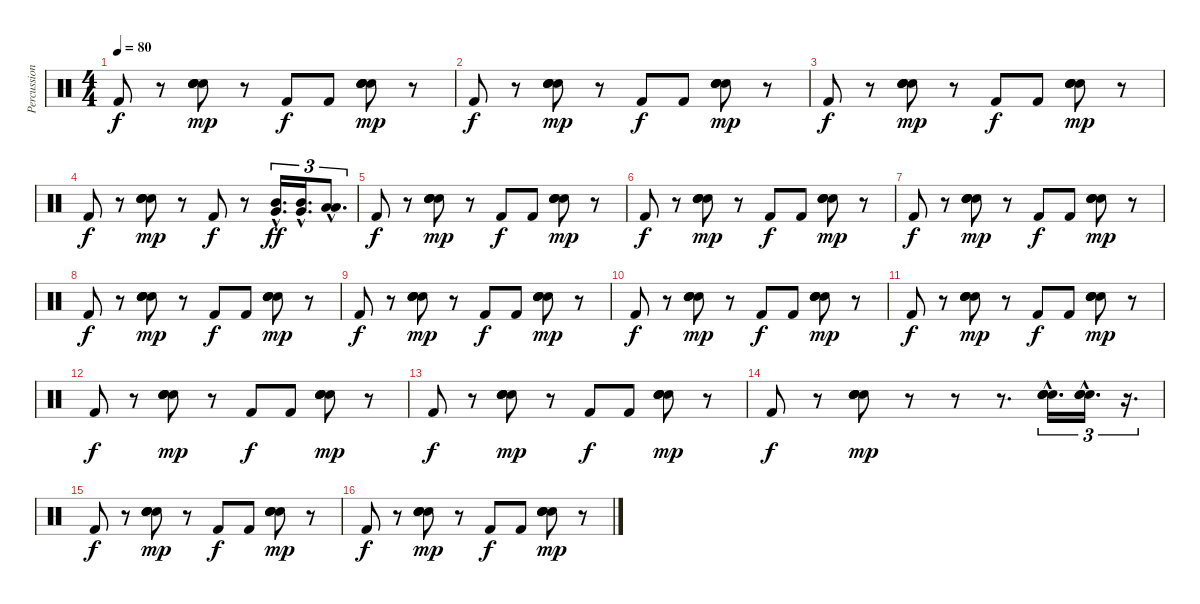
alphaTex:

\track ("Percussion" "Percussion") {instrument percussion}
\staff {score}
\articulation defaults
\ts (4 4)
\tempo 80
\clef neutral
\ks c "Kick (hit) 2".8{dy f}
r.8 ("Snare (hit) 2" "Snare (hit) 2" "Snare (hit) 2" "Snare (hit) 2").8{bd 60 dy mp} r.8 "Kick (hit) 2".8{dy f} "Kick (hit) 2".8 ("Snare (hit) 2" "Snare (hit) 2" "Snare (hit) 2" "Snare (hit) 2").8{bd 60 dy mp} r.8 |
"Kick (hit) 2".8{dy f} r.8 ("Snare (hit) 2" "Snare (hit) 2" "Snare (hit) 2" "Snare (hit) 2").8{bd 60 dy mp} r.8 "Kick (hit) 2".8{dy f} "Kick (hit) 2".8 ("Snare (hit) 2" "Snare (hit) 2" "Snare (hit) 2" "Snare (hit) 2").8{bd 60 dy mp} r.8 |
"Kick (hit) 2".8{dy f} r.8 ("Snare (hit) 2" "Snare (hit) 2" "Snare (hit) 2" "Snare (hit) 2").8{bd 60 dy mp} r.8 "Kick (hit) 2".8{dy f} "Kick (hit) 2".8 ("Snare (hit) 2" "Snare (hit) 2" "Snare (hit) 2" "Snare (hit) 2").8{bd 60 dy mp} r.8 |
"Kick (hit) 2".8{dy f} r.8 ("Snare (hit) 2" "Snare (hit) 2" "Snare (hit) 2" "Snare (hit) 2").8{bd 60 dy mp} r.8 "Kick (hit) 2".8{dy f} r.8 ("Mid Tom (hit)"{hac} "Very Low Tom (hit)"{hac}).16{d tu (3 2) bu 60 dy ff} ("Mid Tom (hit)"{hac} "Very Low Tom (hit)"{hac}).16{d tu (3 2) bu 60} ("Low Tom (hit)"{hac} "Low Floor Tom (hit)"{hac}).8{d tu (3 2) bu 60} |
"Kick (hit) 2".8{dy f} r.8 ("Snare (hit) 2" "Snare (hit) 2" "Snare (hit) 2" "Snare (hit) 2").8{bd 60 dy mp} r.8 "Kick (hit) 2".8{dy f} "Kick (hit) 2".8 ("Snare (hit) 2" "Snare (hit) 2" "Snare (hit) 2" "Snare (hit) 2").8{bd 60 dy mp} r.8 |
"Kick (hit) 2".8{dy f} r.8 ("Snare (hit) 2" "Snare (hit) 2" "Snare (hit) 2" "Snare (hit) 2").8{bd 60 dy mp} r.8 "Kick (hit) 2".8{dy f} "Kick (hit) 2".8 ("Snare (hit) 2" "Snare (hit) 2" "Snare (hit) 2" "Snare (hit) 2").8{bd 60 dy mp} r.8 |
"Kick (hit) 2".8{dy f} r.8 ("Snare (hit) 2" "Snare (hit) 2" "Snare (hit) 2" "Snare (hit) 2").8{bd 60 dy mp} r.8 "Kick (hit) 2".8{dy f} "Kick (hit) 2".8 ("Snare (hit) 2" "Snare (hit) 2" "Snare (hit) 2" "Snare (hit) 2").8{bd 60 dy mp} r.8 |
"Kick (hit) 2".8{dy f} r.8 ("Snare (hit) 2" "Snare (hit) 2" "Snare (hit) 2" "Snare (hit) 2").8{bd 60 dy mp} r.8 "Kick (hit) 2".8{dy f} "Kick (hit) 2".8 ("Snare (hit) 2" "Snare (hit) 2" "Snare (hit) 2" "Snare (hit) 2").8{bd 60 dy mp} r.8 |
"Kick (hit) 2".8{dy f} r.8 ("Snare (hit) 2" "Snare (hit) 2" "Snare (hit) 2" "Snare (hit) 2").8{bd 60 dy mp} r.8 "Kick (hit) 2".8{dy f} "Kick (hit) 2".8 ("Snare (hit) 2" "Snare (hit) 2" "Snare (hit) 2" "Snare (hit) 2").8{bd 60 dy mp} r.8 |
"Kick (hit) 2".8{dy f} r.8 ("Snare (hit) 2" "Snare (hit) 2" "Snare (hit) 2" "Snare (hit) 2").8{bd 60 dy mp} r.8 "Kick (hit) 2".8{dy f} "Kick (hit) 2".8 ("Snare (hit) 2" "Snare (hit) 2" "Snare (hit) 2" "Snare (hit) 2").8{bd 60 dy mp} r.8 |
"Kick (hit) 2".8{dy f} r.8 ("Snare (hit) 2" "Snare (hit) 2" "Snare (hit) 2" "Snare (hit) 2").8{bd 60 dy mp} r.8 "Kick (hit) 2".8{dy f} "Kick (hit) 2".8 ("Snare (hit) 2" "Snare (hit) 2" "Snare (hit) 2" "Snare (hit) 2").8{bd 60 dy mp} r.8 |
"Kick (hit) 2".8{dy f} r.8 ("Snare (hit) 2" "Snare (hit) 2" "Snare (hit) 2" "Snare (hit) 2").8{bd 60 dy mp} r.8 "Kick (hit) 2".8{dy f} "Kick (hit) 2".8 ("Snare (hit) 2" "Snare (hit) 2" "Snare (hit) 2" "Snare (hit) 2").8{bd 60 dy mp} r.8 |
"Kick (hit) 2".8{dy f} r.8 ("Snare (hit) 2" "Snare (hit) 2" "Snare (hit) 2" "Snare (hit) 2").8{bd 60 dy mp} r.8 "Kick (hit) 2".8{dy f} "Kick (hit) 2".8 ("Snare (hit) 2" "Snare (hit) 2" "Snare (hit) 2" "Snare (hit) 2").8{bd 60 dy mp} r.8 |
"Kick (hit) 2".8{dy f} r.8 ("Snare (hit) 2" "Snare (hit) 2" "Snare (hit) 2" "Snare (hit) 2").8{bd 60 dy mp} r.8 r.8 r.8{d} ("Snare (hit) 2"{hac} "Snare (hit) 2"{hac} "Snare (hit) 2"{hac} "Snare (hit) 2"{hac}).16{d tu (3 2) bd 30} ("Snare (hit) 2"{hac} "Snare (hit) 2"{hac} "Snare (hit) 2"{hac} "Snare (hit) 2"{hac}).16{d tu (3 2) bd 30} r.16{d tu (3 2)} |
"Kick (hit) 2".8{dy f} r.8 ("Snare (hit) 2" "Snare (hit) 2" "Snare (hit) 2" "Snare (hit) 2").8{bd 60 dy mp} r.8 "Kick (hit) 2".8{dy f} "Kick (hit) 2".8 ("Snare (hit) 2" "Snare (hit) 2" "Snare (hit) 2" "Snare (hit) 2").8{bd 60 dy mp} r.8 |
"Kick (hit) 2".8{dy f} r.8 ("Snare (hit) 2" "Snare (hit) 2" "Snare (hit) 2" "Snare (hit) 2").8{bd 60 dy mp} r.8 "Kick (hit) 2".8{dy f} "Kick (hit) 2".8 ("Snare (hit) 2" "Snare (hit) 2" "Snare (hit) 2" "Snare (hit) 2").8{bd 60 dy mp} r.8
